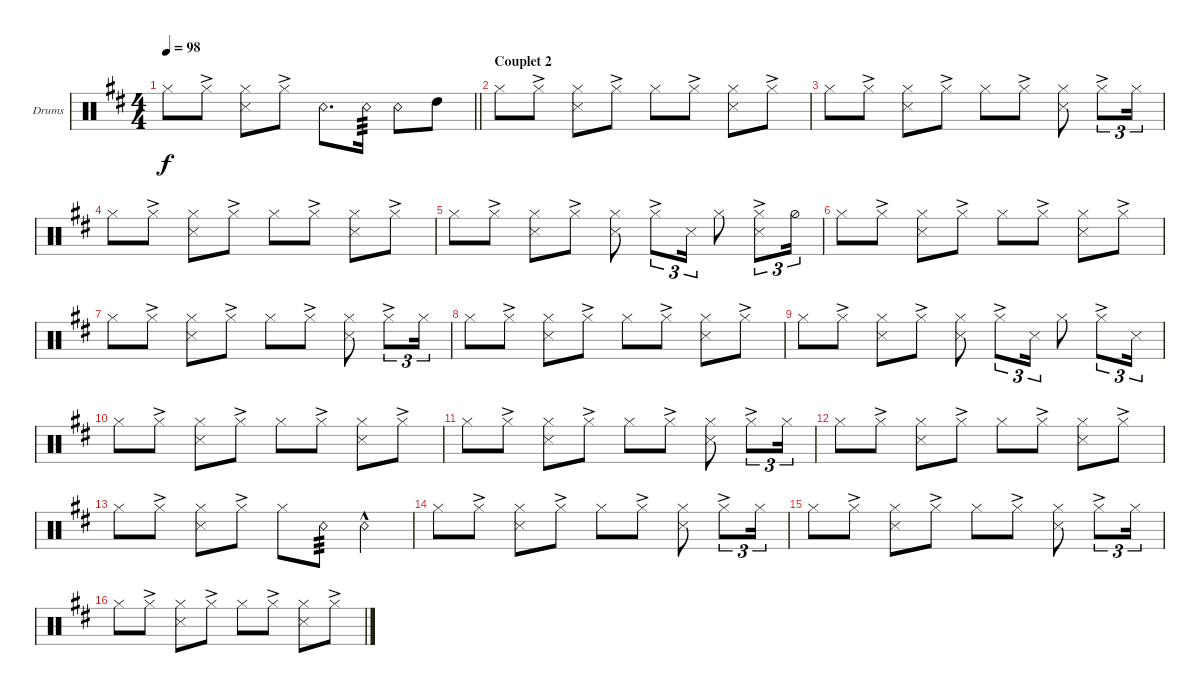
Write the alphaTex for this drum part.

\bracketExtendMode groupsimilarinstruments
\firstSystemTrackNameOrientation horizontal
\otherSystemsTrackNameOrientation horizontal
\track ("Drumkit" "Drums") {instrument percussion}
\staff {score}
\articulation defaults
\ts (4 4)
\tempo 98
\clef neutral
\barLineRight lightlight
\ks d "Hi-Hat (closed)".8{dy f} "Hi-Hat (closed)"{ac}.8
("Snare (side stick) 3" "Hi-Hat (closed)").8 "Hi-Hat (closed)"{ac}.8 "Snare (rim shot)".8{d} "Snare (rim shot)".16{tp 3} "Snare (rim shot)".8 "High Tom (hit)".8 |
\section ("" "Couplet 2")
"Hi-Hat (closed)".8 "Hi-Hat (closed)"{ac}.8 ("Snare (side stick) 3" "Hi-Hat (closed)").8 "Hi-Hat (closed)"{ac}.8 "Hi-Hat (closed)".8 "Hi-Hat (closed)"{ac}.8 ("Snare (side stick) 3" "Hi-Hat (closed)").8 "Hi-Hat (closed)"{ac}.8 |
"Hi-Hat (closed)".8 "Hi-Hat (closed)"{ac}.8 ("Snare (side stick) 3" "Hi-Hat (closed)").8 "Hi-Hat (closed)"{ac}.8 "Hi-Hat (closed)".8 "Hi-Hat (closed)"{ac}.8 ("Snare (side stick) 3" "Hi-Hat (closed)").8 "Hi-Hat (closed)"{ac}.8{tu (3 2)} "Hi-Hat (closed)".16{tu (3 2)} |
"Hi-Hat (closed)".8 "Hi-Hat (closed)"{ac}.8 ("Snare (side stick) 3" "Hi-Hat (closed)").8 "Hi-Hat (closed)"{ac}.8 "Hi-Hat (closed)".8 "Hi-Hat (closed)"{ac}.8 ("Snare (side stick) 3" "Hi-Hat (closed)").8 "Hi-Hat (closed)"{ac}.8 |
"Hi-Hat (closed)".8 "Hi-Hat (closed)"{ac}.8 ("Snare (side stick) 3" "Hi-Hat (closed)").8 "Hi-Hat (closed)"{ac}.8 ("Hi-Hat (closed)" "Snare (side stick) 3").8 "Hi-Hat (closed)"{ac}.8{tu (3 2)} "Snare (side stick) 3".16{tu (3 2)} "Hi-Hat (closed)".8 ("Hi-Hat (closed)"{ac} "Snare (side stick) 3").8{tu (3 2)} "Hi-Hat (half)".16{tu (3 2)} |
"Hi-Hat (closed)".8 "Hi-Hat (closed)"{ac}.8 ("Snare (side stick) 3" "Hi-Hat (closed)").8 "Hi-Hat (closed)"{ac}.8 "Hi-Hat (closed)".8 "Hi-Hat (closed)"{ac}.8 ("Snare (side stick) 3" "Hi-Hat (closed)").8 "Hi-Hat (closed)"{ac}.8 |
"Hi-Hat (closed)".8 "Hi-Hat (closed)"{ac}.8 ("Snare (side stick) 3" "Hi-Hat (closed)").8 "Hi-Hat (closed)"{ac}.8 "Hi-Hat (closed)".8 "Hi-Hat (closed)"{ac}.8 ("Snare (side stick) 3" "Hi-Hat (closed)").8 "Hi-Hat (closed)"{ac}.8{tu (3 2)} "Hi-Hat (closed)".16{tu (3 2)} |
"Hi-Hat (closed)".8 "Hi-Hat (closed)"{ac}.8 ("Snare (side stick) 3" "Hi-Hat (closed)").8 "Hi-Hat (closed)"{ac}.8 "Hi-Hat (closed)".8 "Hi-Hat (closed)"{ac}.8 ("Snare (side stick) 3" "Hi-Hat (closed)").8 "Hi-Hat (closed)"{ac}.8 |
"Hi-Hat (closed)".8 "Hi-Hat (closed)"{ac}.8 ("Snare (side stick) 3" "Hi-Hat (closed)").8 "Hi-Hat (closed)"{ac}.8 ("Hi-Hat (closed)" "Snare (side stick) 3").8 "Hi-Hat (closed)"{ac}.8{tu (3 2)} "Snare (side stick) 3".16{tu (3 2)} "Hi-Hat (closed)".8 "Hi-Hat (closed)"{ac}.8{tu (3 2)} "Snare (side stick) 3".16{tu (3 2)} |
"Hi-Hat (closed)".8 "Hi-Hat (closed)"{ac}.8 ("Snare (side stick) 3" "Hi-Hat (closed)").8 "Hi-Hat (closed)"{ac}.8 "Hi-Hat (closed)".8 "Hi-Hat (closed)"{ac}.8 ("Snare (side stick) 3" "Hi-Hat (closed)").8 "Hi-Hat (closed)"{ac}.8 |
"Hi-Hat (closed)".8 "Hi-Hat (closed)"{ac}.8 ("Snare (side stick) 3" "Hi-Hat (closed)").8 "Hi-Hat (closed)"{ac}.8 "Hi-Hat (closed)".8 "Hi-Hat (closed)"{ac}.8 ("Snare (side stick) 3" "Hi-Hat (closed)").8 "Hi-Hat (closed)"{ac}.8{tu (3 2)} "Hi-Hat (closed)".16{tu (3 2)} |
"Hi-Hat (closed)".8 "Hi-Hat (closed)"{ac}.8 ("Snare (side stick) 3" "Hi-Hat (closed)").8 "Hi-Hat (closed)"{ac}.8 "Hi-Hat (closed)".8 "Hi-Hat (closed)"{ac}.8 ("Snare (side stick) 3" "Hi-Hat (closed)").8 "Hi-Hat (closed)"{ac}.8 |
"Hi-Hat (closed)".8 "Hi-Hat (closed)"{ac}.8 ("Snare (side stick) 3" "Hi-Hat (closed)").8 "Hi-Hat (closed)"{ac}.8 "Hi-Hat (closed)".8 "Snare (rim shot)".8{tp 3} "Snare (rim shot)"{hac}.4 |
"Hi-Hat (closed)".8 "Hi-Hat (closed)"{ac}.8 ("Snare (side stick) 3" "Hi-Hat (closed)").8 "Hi-Hat (closed)"{ac}.8 "Hi-Hat (closed)".8 "Hi-Hat (closed)"{ac}.8 ("Snare (side stick) 3" "Hi-Hat (closed)").8 "Hi-Hat (closed)"{ac}.8{tu (3 2)} "Hi-Hat (closed)".16{tu (3 2)} |
"Hi-Hat (closed)".8 "Hi-Hat (closed)"{ac}.8 ("Snare (side stick) 3" "Hi-Hat (closed)").8 "Hi-Hat (closed)"{ac}.8 "Hi-Hat (closed)".8 "Hi-Hat (closed)"{ac}.8 ("Snare (side stick) 3" "Hi-Hat (closed)").8 "Hi-Hat (closed)"{ac}.8{tu (3 2)} "Hi-Hat (closed)".16{tu (3 2)} |
"Hi-Hat (closed)".8 "Hi-Hat (closed)"{ac}.8 ("Snare (side stick) 3" "Hi-Hat (closed)").8 "Hi-Hat (closed)"{ac}.8 "Hi-Hat (closed)".8 "Hi-Hat (closed)"{ac}.8 ("Snare (side stick) 3" "Hi-Hat (closed)").8 "Hi-Hat (closed)"{ac}.8
